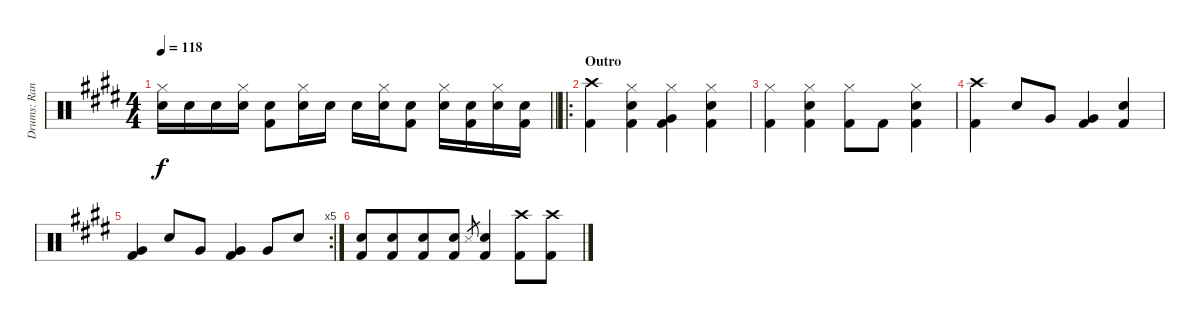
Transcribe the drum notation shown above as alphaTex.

\track ("Drums: Randy" "Drums: Ran") {instrument percussion}
\staff {score}
\articulation defaults
\ts (4 4)
\tempo 118
\clef neutral
\barLineRight lightlight
\ks e
("Hi-Hat (closed)" "Snare (hit) 2").16{dy f} "Snare (hit) 2".16 "Snare (hit) 2".16 ("Hi-Hat (closed)" "Snare (hit) 2").16 ("Snare (hit) 2" "Kick (hit) 2").8 ("Hi-Hat (closed)" "Snare (hit) 2").16 "Snare (hit) 2".16 "Snare (hit) 2".16 ("Hi-Hat (closed)" "Snare (hit) 2").16 ("Snare (hit) 2" "Kick (hit) 2").8 ("Hi-Hat (closed)" "Snare (hit) 2").16 ("Snare (hit) 2" "Kick (hit) 2").16 ("Hi-Hat (closed)" "Snare (hit) 2").16 ("Snare (hit) 2" "Kick (hit) 2").16 |
\ro
\section ("" "Outro")
("Crash high (hit)" "Kick (hit) 2").4 ("Hi-Hat (closed)" "Snare (hit) 2" "Kick (hit) 2").4 ("Hi-Hat (closed)" "Very Low Tom (hit)" "Kick (hit) 2").4 ("Hi-Hat (closed)" "Snare (hit) 2" "Kick (hit) 2").4 |
("Hi-Hat (closed)" "Kick (hit) 2").4 ("Hi-Hat (closed)" "Snare (hit) 2" "Kick (hit) 2").4 ("Hi-Hat (closed)" "Kick (hit) 2").8 "Kick (hit) 2".8 ("Hi-Hat (closed)" "Snare (hit) 2" "Kick (hit) 2").4 |
("Crash high (hit)" "Kick (hit) 2").4 "Snare (hit) 2".8 "Very Low Tom (hit)".8 ("Very Low Tom (hit)" "Kick (hit) 2").4 ("Snare (hit) 2" "Kick (hit) 2").4 |
\rc 5
("Very Low Tom (hit)" "Kick (hit) 2").4 "Snare (hit) 2".8 "Very Low Tom (hit)".8 ("Very Low Tom (hit)" "Kick (hit) 2").4 "Very Low Tom (hit)".8 "Snare (hit) 2".8 |
("Snare (hit) 2" "Kick (hit) 2").8 ("Snare (hit) 2" "Kick (hit) 2").8{beam merge} ("Snare (hit) 2" "Kick (hit) 2").8 ("Snare (hit) 2" "Kick (hit) 2").8 "Snare (side stick) 3".8{gr} ("Snare (hit) 2" "Kick (hit) 2").4 ("Crash high (hit)" "Kick (hit) 2").8 ("Crash high (hit)" "Kick (hit) 2").8
